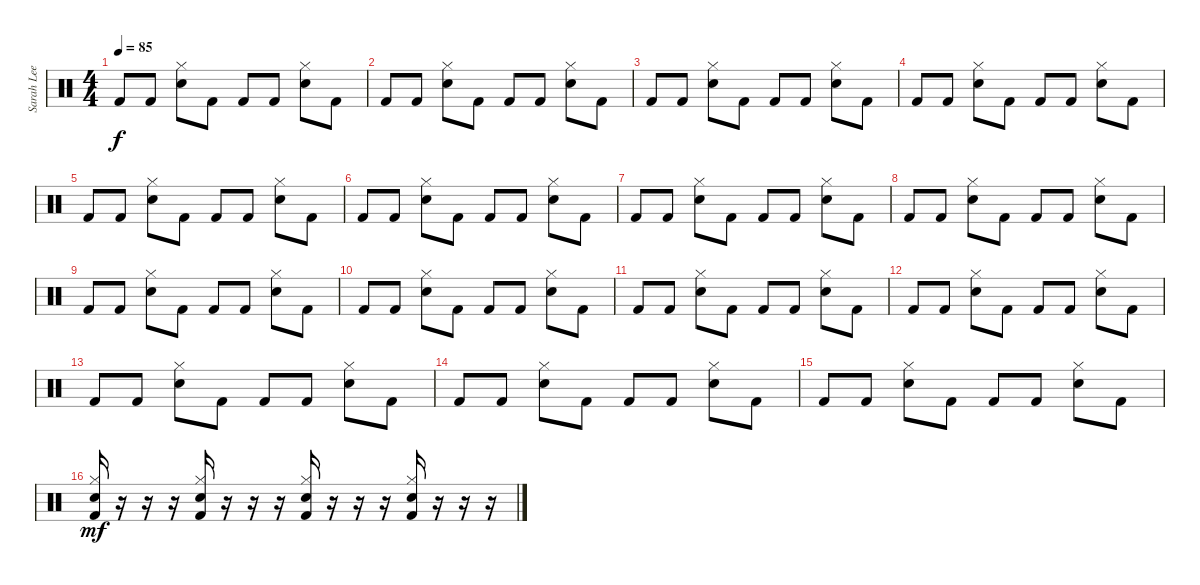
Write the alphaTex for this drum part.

\track ("Sarah Lee Lucas" "Sarah Lee ") {instrument percussion}
\staff {score}
\articulation defaults
\ts (4 4)
\tempo 85
\clef neutral
\ks c "Kick (hit) 2".8{dy f} "Kick (hit) 2".8
("Hi-Hat (closed)" "Electric Snare (hit)").8 "Kick (hit) 2".8 "Kick (hit) 2".8 "Kick (hit) 2".8 ("Hi-Hat (closed)" "Electric Snare (hit)").8 "Kick (hit) 2".8 |
"Kick (hit) 2".8 "Kick (hit) 2".8 ("Hi-Hat (closed)" "Electric Snare (hit)").8 "Kick (hit) 2".8 "Kick (hit) 2".8 "Kick (hit) 2".8 ("Hi-Hat (closed)" "Electric Snare (hit)").8 "Kick (hit) 2".8 |
"Kick (hit) 2".8 "Kick (hit) 2".8 ("Hi-Hat (closed)" "Electric Snare (hit)").8 "Kick (hit) 2".8 "Kick (hit) 2".8 "Kick (hit) 2".8 ("Hi-Hat (closed)" "Electric Snare (hit)").8 "Kick (hit) 2".8 |
"Kick (hit) 2".8 "Kick (hit) 2".8 ("Hi-Hat (closed)" "Electric Snare (hit)").8 "Kick (hit) 2".8 "Kick (hit) 2".8 "Kick (hit) 2".8 ("Hi-Hat (closed)" "Electric Snare (hit)").8 "Kick (hit) 2".8 |
"Kick (hit) 2".8 "Kick (hit) 2".8 ("Hi-Hat (closed)" "Electric Snare (hit)").8 "Kick (hit) 2".8 "Kick (hit) 2".8 "Kick (hit) 2".8 ("Hi-Hat (closed)" "Electric Snare (hit)").8 "Kick (hit) 2".8 |
"Kick (hit) 2".8 "Kick (hit) 2".8 ("Hi-Hat (closed)" "Electric Snare (hit)").8 "Kick (hit) 2".8 "Kick (hit) 2".8 "Kick (hit) 2".8 ("Hi-Hat (closed)" "Electric Snare (hit)").8 "Kick (hit) 2".8 |
"Kick (hit) 2".8 "Kick (hit) 2".8 ("Hi-Hat (closed)" "Electric Snare (hit)").8 "Kick (hit) 2".8 "Kick (hit) 2".8 "Kick (hit) 2".8 ("Hi-Hat (closed)" "Electric Snare (hit)").8 "Kick (hit) 2".8 |
"Kick (hit) 2".8 "Kick (hit) 2".8 ("Hi-Hat (closed)" "Electric Snare (hit)").8 "Kick (hit) 2".8 "Kick (hit) 2".8 "Kick (hit) 2".8 ("Hi-Hat (closed)" "Electric Snare (hit)").8 "Kick (hit) 2".8 |
"Kick (hit) 2".8 "Kick (hit) 2".8 ("Hi-Hat (closed)" "Electric Snare (hit)").8 "Kick (hit) 2".8 "Kick (hit) 2".8 "Kick (hit) 2".8 ("Hi-Hat (closed)" "Electric Snare (hit)").8 "Kick (hit) 2".8 |
"Kick (hit) 2".8 "Kick (hit) 2".8 ("Hi-Hat (closed)" "Electric Snare (hit)").8 "Kick (hit) 2".8 "Kick (hit) 2".8 "Kick (hit) 2".8 ("Hi-Hat (closed)" "Electric Snare (hit)").8 "Kick (hit) 2".8 |
"Kick (hit) 2".8 "Kick (hit) 2".8 ("Hi-Hat (closed)" "Electric Snare (hit)").8 "Kick (hit) 2".8 "Kick (hit) 2".8 "Kick (hit) 2".8 ("Hi-Hat (closed)" "Electric Snare (hit)").8 "Kick (hit) 2".8 |
"Kick (hit) 2".8 "Kick (hit) 2".8 ("Hi-Hat (closed)" "Electric Snare (hit)").8 "Kick (hit) 2".8 "Kick (hit) 2".8 "Kick (hit) 2".8 ("Hi-Hat (closed)" "Electric Snare (hit)").8 "Kick (hit) 2".8 |
"Kick (hit) 2".8 "Kick (hit) 2".8 ("Hi-Hat (closed)" "Electric Snare (hit)").8 "Kick (hit) 2".8 "Kick (hit) 2".8 "Kick (hit) 2".8 ("Hi-Hat (closed)" "Electric Snare (hit)").8 "Kick (hit) 2".8 |
"Kick (hit) 2".8 "Kick (hit) 2".8 ("Hi-Hat (closed)" "Electric Snare (hit)").8 "Kick (hit) 2".8 "Kick (hit) 2".8 "Kick (hit) 2".8 ("Hi-Hat (closed)" "Electric Snare (hit)").8 "Kick (hit) 2".8 |
"Kick (hit) 2".8 "Kick (hit) 2".8 ("Hi-Hat (closed)" "Electric Snare (hit)").8 "Kick (hit) 2".8 "Kick (hit) 2".8 "Kick (hit) 2".8 ("Hi-Hat (closed)" "Electric Snare (hit)").8 "Kick (hit) 2".8 |
("Hi-Hat (closed)" "Electric Snare (hit)" "Kick (hit) 2").16{dy mf} r.16 r.16 r.16 ("Hi-Hat (closed)" "Electric Snare (hit)" "Kick (hit) 2").16 r.16 r.16 r.16 ("Hi-Hat (closed)" "Electric Snare (hit)" "Kick (hit) 2").16 r.16 r.16 r.16 ("Hi-Hat (closed)" "Electric Snare (hit)" "Kick (hit) 2").16 r.16 r.16 r.16
